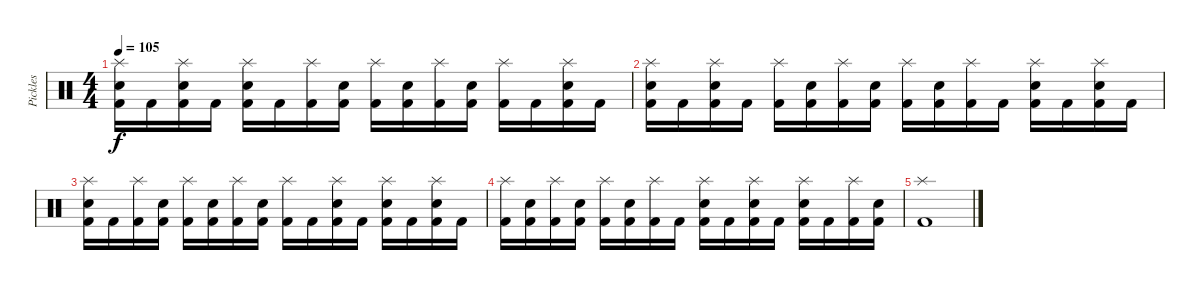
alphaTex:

\track ("Pickles" "Pickles") {instrument percussion}
\staff {score}
\articulation defaults
\ts (4 4)
\tempo 105
\clef neutral
\ks c
("Splash (hit)" "Snare (hit) 2" "Kick (hit) 2").16{dy f} "Kick (hit) 2".16 ("Splash (hit)" "Snare (hit) 2" "Kick (hit) 2").16 "Kick (hit) 2".16 ("Splash (hit)" "Snare (hit) 2" "Kick (hit) 2").16 "Kick (hit) 2".16 ("Splash (hit)" "Kick (hit) 2").16 ("Snare (hit) 2" "Kick (hit) 2").16 ("Splash (hit)" "Kick (hit) 2").16 ("Snare (hit) 2" "Kick (hit) 2").16 ("Splash (hit)" "Kick (hit) 2").16 ("Snare (hit) 2" "Kick (hit) 2").16 ("Splash (hit)" "Kick (hit) 2").16 "Kick (hit) 2".16 ("Splash (hit)" "Snare (hit) 2" "Kick (hit) 2").16 "Kick (hit) 2".16 |
("Splash (hit)" "Snare (hit) 2" "Kick (hit) 2").16 "Kick (hit) 2".16 ("Splash (hit)" "Snare (hit) 2" "Kick (hit) 2").16 "Kick (hit) 2".16 ("Splash (hit)" "Kick (hit) 2").16 ("Snare (hit) 2" "Kick (hit) 2").16 ("Splash (hit)" "Kick (hit) 2").16 ("Snare (hit) 2" "Kick (hit) 2").16 ("Splash (hit)" "Kick (hit) 2").16 ("Snare (hit) 2" "Kick (hit) 2").16 ("Splash (hit)" "Kick (hit) 2").16 "Kick (hit) 2".16 ("Splash (hit)" "Snare (hit) 2" "Kick (hit) 2").16 "Kick (hit) 2".16 ("Splash (hit)" "Snare (hit) 2" "Kick (hit) 2").16 "Kick (hit) 2".16 |
("Splash (hit)" "Snare (hit) 2" "Kick (hit) 2").16 "Kick (hit) 2".16 ("Splash (hit)" "Kick (hit) 2").16 ("Snare (hit) 2" "Kick (hit) 2").16 ("Splash (hit)" "Kick (hit) 2").16 ("Snare (hit) 2" "Kick (hit) 2").16 ("Splash (hit)" "Kick (hit) 2").16 ("Snare (hit) 2" "Kick (hit) 2").16 ("Splash (hit)" "Kick (hit) 2").16 "Kick (hit) 2".16 ("Splash (hit)" "Snare (hit) 2" "Kick (hit) 2").16 "Kick (hit) 2".16 ("Splash (hit)" "Snare (hit) 2" "Kick (hit) 2").16 "Kick (hit) 2".16 ("Splash (hit)" "Snare (hit) 2" "Kick (hit) 2").16 "Kick (hit) 2".16 |
("Splash (hit)" "Kick (hit) 2").16 ("Snare (hit) 2" "Kick (hit) 2").16 ("Splash (hit)" "Kick (hit) 2").16 ("Snare (hit) 2" "Kick (hit) 2").16 ("Splash (hit)" "Kick (hit) 2").16 ("Snare (hit) 2" "Kick (hit) 2").16 ("Splash (hit)" "Kick (hit) 2").16 "Kick (hit) 2".16 ("Splash (hit)" "Snare (hit) 2" "Kick (hit) 2").16 "Kick (hit) 2".16 ("Splash (hit)" "Snare (hit) 2" "Kick (hit) 2").16 "Kick (hit) 2".16 ("Splash (hit)" "Snare (hit) 2" "Kick (hit) 2").16 "Kick (hit) 2".16 ("Splash (hit)" "Kick (hit) 2").16 ("Snare (hit) 2" "Kick (hit) 2").16 |
("Splash (hit)" "Kick (hit) 2").1
